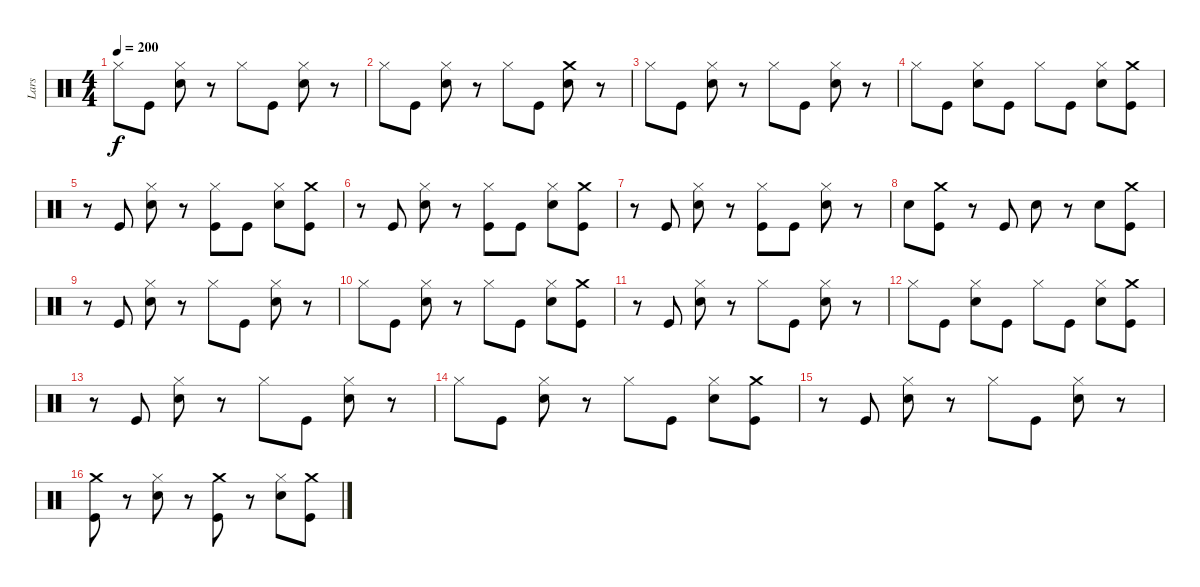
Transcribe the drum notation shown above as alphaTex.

\track ("Lars" "Lars") {instrument percussion}
\staff {score}
\articulation defaults
\ts (4 4)
\tempo 200
\clef neutral
\ks c "Hi-Hat (closed)".8{dy f} "Kick (hit)".8
("Hi-Hat (closed)" "Snare (hit) 2").8 r.8 "Hi-Hat (closed)".8 "Kick (hit)".8 ("Hi-Hat (closed)" "Snare (hit) 2").8 r.8 |
"Hi-Hat (closed)".8 "Kick (hit)".8 ("Hi-Hat (closed)" "Snare (hit) 2").8 r.8 "Hi-Hat (closed)".8 "Kick (hit)".8 ("Crash medium (hit)" "Snare (hit) 2").8 r.8 |
"Hi-Hat (closed)".8 "Kick (hit)".8 ("Hi-Hat (closed)" "Snare (hit) 2").8 r.8 "Hi-Hat (closed)".8 "Kick (hit)".8 ("Hi-Hat (closed)" "Snare (hit) 2").8 r.8 |
"Hi-Hat (closed)".8 "Kick (hit)".8 ("Hi-Hat (closed)" "Snare (hit) 2").8 "Kick (hit)".8 "Hi-Hat (closed)".8 "Kick (hit)".8 ("Hi-Hat (closed)" "Snare (hit) 2").8 ("Crash medium (hit)" "Kick (hit)").8 |
r.8 "Kick (hit)".8 ("Hi-Hat (closed)" "Snare (hit) 2").8 r.8 ("Kick (hit)" "Hi-Hat (closed)").8 "Kick (hit)".8 ("Hi-Hat (closed)" "Snare (hit) 2").8 ("Crash medium (hit)" "Kick (hit)").8 |
r.8 "Kick (hit)".8 ("Hi-Hat (closed)" "Snare (hit) 2").8 r.8 ("Kick (hit)" "Hi-Hat (closed)").8 "Kick (hit)".8 ("Hi-Hat (closed)" "Snare (hit) 2").8 ("Crash medium (hit)" "Kick (hit)").8 |
r.8 "Kick (hit)".8 ("Hi-Hat (closed)" "Snare (hit) 2").8 r.8 ("Kick (hit)" "Hi-Hat (closed)").8 "Kick (hit)".8 ("Hi-Hat (closed)" "Snare (hit) 2").8 r.8 |
"Snare (hit) 2".8 ("Kick (hit)" "Crash medium (hit)").8 r.8 "Kick (hit)".8 "Snare (hit) 2".8 r.8 "Snare (hit) 2".8 ("Crash medium (hit)" "Kick (hit)").8 |
r.8 "Kick (hit)".8 ("Hi-Hat (closed)" "Snare (hit) 2").8 r.8 "Hi-Hat (closed)".8 "Kick (hit)".8 ("Hi-Hat (closed)" "Snare (hit) 2").8 r.8 |
"Hi-Hat (closed)".8 "Kick (hit)".8 ("Hi-Hat (closed)" "Snare (hit) 2").8 r.8 "Hi-Hat (closed)".8 "Kick (hit)".8 ("Hi-Hat (closed)" "Snare (hit) 2").8 ("Crash medium (hit)" "Kick (hit)").8 |
r.8 "Kick (hit)".8 ("Hi-Hat (closed)" "Snare (hit) 2").8 r.8 "Hi-Hat (closed)".8 "Kick (hit)".8 ("Hi-Hat (closed)" "Snare (hit) 2").8 r.8 |
"Hi-Hat (closed)".8 "Kick (hit)".8 ("Hi-Hat (closed)" "Snare (hit) 2").8 "Kick (hit)".8 "Hi-Hat (closed)".8 "Kick (hit)".8 ("Hi-Hat (closed)" "Snare (hit) 2").8 ("Crash medium (hit)" "Kick (hit)").8 |
r.8 "Kick (hit)".8 ("Hi-Hat (closed)" "Snare (hit) 2").8 r.8 "Hi-Hat (closed)".8 "Kick (hit)".8 ("Hi-Hat (closed)" "Snare (hit) 2").8 r.8 |
"Hi-Hat (closed)".8 "Kick (hit)".8 ("Hi-Hat (closed)" "Snare (hit) 2").8 r.8 "Hi-Hat (closed)".8 "Kick (hit)".8 ("Hi-Hat (closed)" "Snare (hit) 2").8 ("Crash medium (hit)" "Kick (hit)").8 |
r.8 "Kick (hit)".8 ("Hi-Hat (closed)" "Snare (hit) 2").8 r.8 "Hi-Hat (closed)".8 "Kick (hit)".8 ("Hi-Hat (closed)" "Snare (hit) 2").8 r.8 |
("Crash medium (hit)" "Kick (hit)").8 r.8 ("Snare (hit) 2" "Hi-Hat (closed)").8 r.8 ("Crash medium (hit)" "Kick (hit)").8 r.8 ("Hi-Hat (closed)" "Snare (hit) 2").8 ("Crash medium (hit)" "Kick (hit)").8
